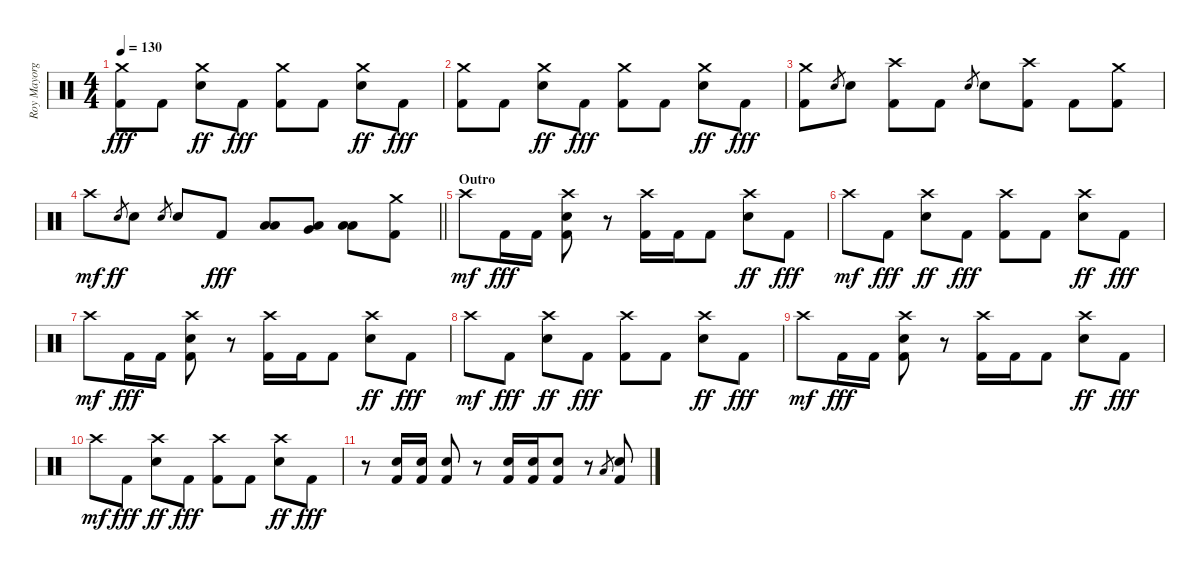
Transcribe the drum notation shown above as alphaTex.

\track ("Roy Mayorga" "Roy Mayorg") {instrument percussion}
\staff {score}
\articulation defaults
\ts (4 4)
\tempo 130
\clef neutral
\ks c
("Crash medium (hit)" "Kick (hit) 2").8{dy fff} "Kick (hit) 2".8 ("Crash medium (hit)" "Electric Snare (hit)").8{dy ff} "Kick (hit) 2".8{dy fff} ("Crash medium (hit)" "Kick (hit) 2").8 "Kick (hit) 2".8 ("Crash medium (hit)" "Electric Snare (hit)").8{dy ff} "Kick (hit) 2".8{dy fff} |
("Crash medium (hit)" "Kick (hit) 2").8 "Kick (hit) 2".8 ("Crash medium (hit)" "Electric Snare (hit)").8{dy ff} "Kick (hit) 2".8{dy fff} ("Crash medium (hit)" "Kick (hit) 2").8 "Kick (hit) 2".8 ("Crash medium (hit)" "Electric Snare (hit)").8{dy ff} "Kick (hit) 2".8{dy fff} |
("Crash medium (hit)" "Kick (hit) 2").8 "Electric Snare (hit)".8{gr} "Electric Snare (hit)".8 ("Crash high (hit)" "Kick (hit) 2").8 "Kick (hit) 2".8 "Electric Snare (hit)".8{gr} "Electric Snare (hit)".8 ("Crash high (hit)" "Kick (hit) 2").8 "Kick (hit) 2".8 ("Crash medium (hit)" "Kick (hit) 2").8 |
\barLineRight lightlight "Crash high (hit)".8{dy mf} "Electric Snare (hit)".8{gr dy ff} "Electric Snare (hit)".8 "Electric Snare (hit)".8{gr} "Electric Snare (hit)".8 "Kick (hit) 2".8{dy fff}
("Low Tom (hit)" "Low Floor Tom (hit)").8 ("Very Low Tom (hit)" "Low Floor Tom (hit)").8 ("Low Floor Tom (hit)" "Low Floor Tom (hit)").8 ("Crash medium (hit)" "Kick (hit) 2").8 |
\section ("" "Outro")
"Crash high (hit)".8{dy mf} "Kick (hit) 2".16{dy fff} "Kick (hit) 2".16 ("Crash high (hit)" "Electric Snare (hit)" "Kick (hit) 2").8 r.8 ("Crash high (hit)" "Kick (hit) 2").16 "Kick (hit) 2".16 "Kick (hit) 2".8 ("Crash high (hit)" "Electric Snare (hit)").8{dy ff} "Kick (hit) 2".8{dy fff} |
"Crash high (hit)".8{dy mf} "Kick (hit) 2".8{dy fff} ("Crash high (hit)" "Electric Snare (hit)").8{dy ff} "Kick (hit) 2".8{dy fff} ("Crash high (hit)" "Kick (hit) 2").8 "Kick (hit) 2".8 ("Crash high (hit)" "Electric Snare (hit)").8{dy ff} "Kick (hit) 2".8{dy fff} |
"Crash high (hit)".8{dy mf} "Kick (hit) 2".16{dy fff} "Kick (hit) 2".16 ("Crash high (hit)" "Electric Snare (hit)" "Kick (hit) 2").8 r.8 ("Crash high (hit)" "Kick (hit) 2").16 "Kick (hit) 2".16 "Kick (hit) 2".8 ("Crash high (hit)" "Electric Snare (hit)").8{dy ff} "Kick (hit) 2".8{dy fff} |
"Crash high (hit)".8{dy mf} "Kick (hit) 2".8{dy fff} ("Crash high (hit)" "Electric Snare (hit)").8{dy ff} "Kick (hit) 2".8{dy fff} ("Crash high (hit)" "Kick (hit) 2").8 "Kick (hit) 2".8 ("Crash high (hit)" "Electric Snare (hit)").8{dy ff} "Kick (hit) 2".8{dy fff} |
"Crash high (hit)".8{dy mf} "Kick (hit) 2".16{dy fff} "Kick (hit) 2".16 ("Crash high (hit)" "Electric Snare (hit)" "Kick (hit) 2").8 r.8 ("Crash high (hit)" "Kick (hit) 2").16 "Kick (hit) 2".16 "Kick (hit) 2".8 ("Crash high (hit)" "Electric Snare (hit)").8{dy ff} "Kick (hit) 2".8{dy fff} |
"Crash high (hit)".8{dy mf} "Kick (hit) 2".8{dy fff} ("Crash high (hit)" "Electric Snare (hit)").8{dy ff} "Kick (hit) 2".8{dy fff} ("Crash high (hit)" "Kick (hit) 2").8 "Kick (hit) 2".8 ("Crash high (hit)" "Electric Snare (hit)").8{dy ff} "Kick (hit) 2".8{dy fff} |
r.8 ("Electric Snare (hit)" "Kick (hit) 2").16 ("Electric Snare (hit)" "Kick (hit) 2").16 ("Electric Snare (hit)" "Kick (hit) 2").8 r.8 ("Electric Snare (hit)" "Kick (hit) 2").16 ("Electric Snare (hit)" "Kick (hit) 2").16 ("Electric Snare (hit)" "Kick (hit) 2").8 r.8 "Low Floor Tom (hit)".8{gr} ("Electric Snare (hit)" "Kick (hit) 2").8
